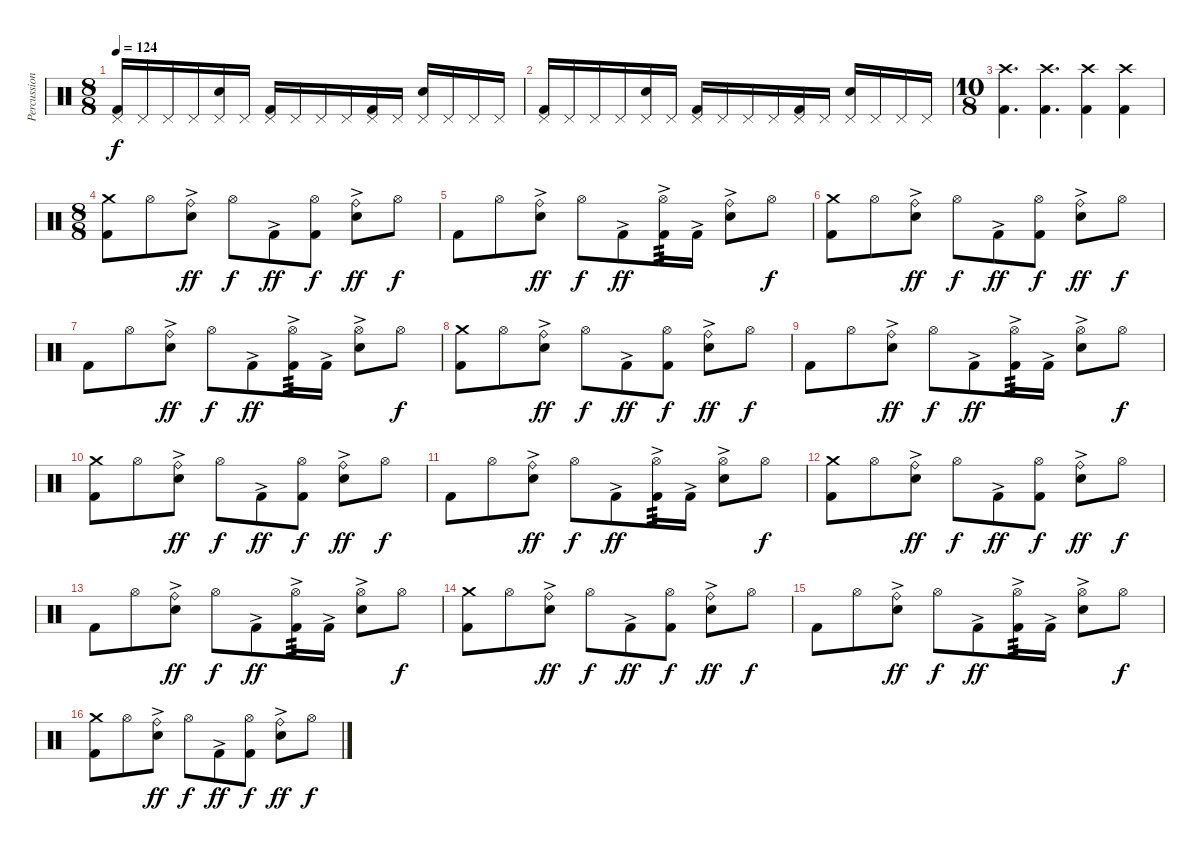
\track ("Percussion" "Percussion") {instrument percussion}
\staff {score}
\articulation defaults
\ts (8 8)
\tempo 124
\clef neutral
\ks c
("Kick (hit) 2" "Pedal Hi-Hat (hit)").16{dy f} "Pedal Hi-Hat (hit)".16 "Pedal Hi-Hat (hit)".16 "Pedal Hi-Hat (hit)".16 ("Electric Snare (hit)" "Pedal Hi-Hat (hit)").16 "Pedal Hi-Hat (hit)".16 ("Kick (hit) 2" "Pedal Hi-Hat (hit)").16 "Pedal Hi-Hat (hit)".16 "Pedal Hi-Hat (hit)".16 "Pedal Hi-Hat (hit)".16 ("Kick (hit) 2" "Pedal Hi-Hat (hit)").16 "Pedal Hi-Hat (hit)".16 ("Electric Snare (hit)" "Pedal Hi-Hat (hit)").16 "Pedal Hi-Hat (hit)".16 "Pedal Hi-Hat (hit)".16 "Pedal Hi-Hat (hit)".16 |
("Kick (hit) 2" "Pedal Hi-Hat (hit)").16 "Pedal Hi-Hat (hit)".16 "Pedal Hi-Hat (hit)".16 "Pedal Hi-Hat (hit)".16 ("Electric Snare (hit)" "Pedal Hi-Hat (hit)").16 "Pedal Hi-Hat (hit)".16 ("Kick (hit) 2" "Pedal Hi-Hat (hit)").16 "Pedal Hi-Hat (hit)".16 "Pedal Hi-Hat (hit)".16 "Pedal Hi-Hat (hit)".16 ("Kick (hit) 2" "Pedal Hi-Hat (hit)").16 "Pedal Hi-Hat (hit)".16 ("Electric Snare (hit)" "Pedal Hi-Hat (hit)").16 "Pedal Hi-Hat (hit)".16 "Pedal Hi-Hat (hit)".16 "Pedal Hi-Hat (hit)".16 |
\ts (10 8)
("Crash high (hit)" "Kick (hit) 2").4{d} ("Crash high (hit)" "Kick (hit) 2").4{d} ("Crash high (hit)" "Kick (hit) 2").4 ("Crash high (hit)" "Kick (hit) 2").4 |
\ts (8 8)
("Crash medium (hit)" "Kick (hit) 2").8 "Hi-Hat (open)".8 ("Ride (bell)" "Electric Snare (hit)"{ac}).8{dy ff} "Hi-Hat (open)".8{dy f} "Kick (hit) 2"{ac}.8{dy ff} ("Hi-Hat (open)" "Kick (hit) 2").8{dy f} ("Ride (bell)" "Electric Snare (hit)"{ac}).8{dy ff} "Hi-Hat (open)".8{dy f} |
"Kick (hit) 2".8 "Hi-Hat (open)".8 ("Ride (bell)" "Electric Snare (hit)"{ac}).8{dy ff} "Hi-Hat (open)".8{dy f} "Kick (hit) 2"{ac}.8{dy ff} ("Hi-Hat (open)" "Kick (hit) 2"{ac}).16{tp 3} "Kick (hit) 2"{ac}.16 ("Ride (bell)" "Electric Snare (hit)"{ac}).8 "Hi-Hat (open)".8{dy f} |
("Crash medium (hit)" "Kick (hit) 2").8 "Hi-Hat (open)".8 ("Ride (bell)" "Electric Snare (hit)"{ac}).8{dy ff} "Hi-Hat (open)".8{dy f} "Kick (hit) 2"{ac}.8{dy ff} ("Hi-Hat (open)" "Kick (hit) 2").8{dy f} ("Ride (bell)" "Electric Snare (hit)"{ac}).8{dy ff} "Hi-Hat (open)".8{dy f} |
"Kick (hit) 2".8 "Hi-Hat (open)".8 ("Ride (bell)" "Electric Snare (hit)"{ac}).8{dy ff} "Hi-Hat (open)".8{dy f} "Kick (hit) 2"{ac}.8{dy ff} ("Hi-Hat (open)" "Kick (hit) 2"{ac}).16{tp 3} "Kick (hit) 2"{ac}.16 ("Hi-Hat (open)" "Electric Snare (hit)"{ac}).8 "Hi-Hat (open)".8{dy f} |
("Crash medium (hit)" "Kick (hit) 2").8 "Hi-Hat (open)".8 ("Ride (bell)" "Electric Snare (hit)"{ac}).8{dy ff} "Hi-Hat (open)".8{dy f} "Kick (hit) 2"{ac}.8{dy ff} ("Hi-Hat (open)" "Kick (hit) 2").8{dy f} ("Ride (bell)" "Electric Snare (hit)"{ac}).8{dy ff} "Hi-Hat (open)".8{dy f} |
"Kick (hit) 2".8 "Hi-Hat (open)".8 ("Ride (bell)" "Electric Snare (hit)"{ac}).8{dy ff} "Hi-Hat (open)".8{dy f} "Kick (hit) 2"{ac}.8{dy ff} ("Hi-Hat (open)" "Kick (hit) 2"{ac}).16{tp 3} "Kick (hit) 2"{ac}.16 ("Hi-Hat (open)" "Electric Snare (hit)"{ac}).8 "Hi-Hat (open)".8{dy f} |
("Crash medium (hit)" "Kick (hit) 2").8 "Hi-Hat (open)".8 ("Ride (bell)" "Electric Snare (hit)"{ac}).8{dy ff} "Hi-Hat (open)".8{dy f} "Kick (hit) 2"{ac}.8{dy ff} ("Hi-Hat (open)" "Kick (hit) 2").8{dy f} ("Ride (bell)" "Electric Snare (hit)"{ac}).8{dy ff} "Hi-Hat (open)".8{dy f} |
"Kick (hit) 2".8 "Hi-Hat (open)".8 ("Ride (bell)" "Electric Snare (hit)"{ac}).8{dy ff} "Hi-Hat (open)".8{dy f} "Kick (hit) 2"{ac}.8{dy ff} ("Hi-Hat (open)" "Kick (hit) 2"{ac}).16{tp 3} "Kick (hit) 2"{ac}.16 ("Hi-Hat (open)" "Electric Snare (hit)"{ac}).8 "Hi-Hat (open)".8{dy f} |
("Crash medium (hit)" "Kick (hit) 2").8 "Hi-Hat (open)".8 ("Ride (bell)" "Electric Snare (hit)"{ac}).8{dy ff} "Hi-Hat (open)".8{dy f} "Kick (hit) 2"{ac}.8{dy ff} ("Hi-Hat (open)" "Kick (hit) 2").8{dy f} ("Ride (bell)" "Electric Snare (hit)"{ac}).8{dy ff} "Hi-Hat (open)".8{dy f} |
"Kick (hit) 2".8 "Hi-Hat (open)".8 ("Ride (bell)" "Electric Snare (hit)"{ac}).8{dy ff} "Hi-Hat (open)".8{dy f} "Kick (hit) 2"{ac}.8{dy ff} ("Hi-Hat (open)" "Kick (hit) 2"{ac}).16{tp 3} "Kick (hit) 2"{ac}.16 ("Hi-Hat (open)" "Electric Snare (hit)"{ac}).8 "Hi-Hat (open)".8{dy f} |
("Crash medium (hit)" "Kick (hit) 2").8 "Hi-Hat (open)".8 ("Ride (bell)" "Electric Snare (hit)"{ac}).8{dy ff} "Hi-Hat (open)".8{dy f} "Kick (hit) 2"{ac}.8{dy ff} ("Hi-Hat (open)" "Kick (hit) 2").8{dy f} ("Ride (bell)" "Electric Snare (hit)"{ac}).8{dy ff} "Hi-Hat (open)".8{dy f} |
"Kick (hit) 2".8 "Hi-Hat (open)".8 ("Ride (bell)" "Electric Snare (hit)"{ac}).8{dy ff} "Hi-Hat (open)".8{dy f} "Kick (hit) 2"{ac}.8{dy ff} ("Hi-Hat (open)" "Kick (hit) 2"{ac}).16{tp 3} "Kick (hit) 2"{ac}.16 ("Hi-Hat (open)" "Electric Snare (hit)"{ac}).8 "Hi-Hat (open)".8{dy f} |
("Crash medium (hit)" "Kick (hit) 2").8 "Hi-Hat (open)".8 ("Ride (bell)" "Electric Snare (hit)"{ac}).8{dy ff} "Hi-Hat (open)".8{dy f} "Kick (hit) 2"{ac}.8{dy ff} ("Hi-Hat (open)" "Kick (hit) 2").8{dy f} ("Ride (bell)" "Electric Snare (hit)"{ac}).8{dy ff} "Hi-Hat (open)".8{dy f}
